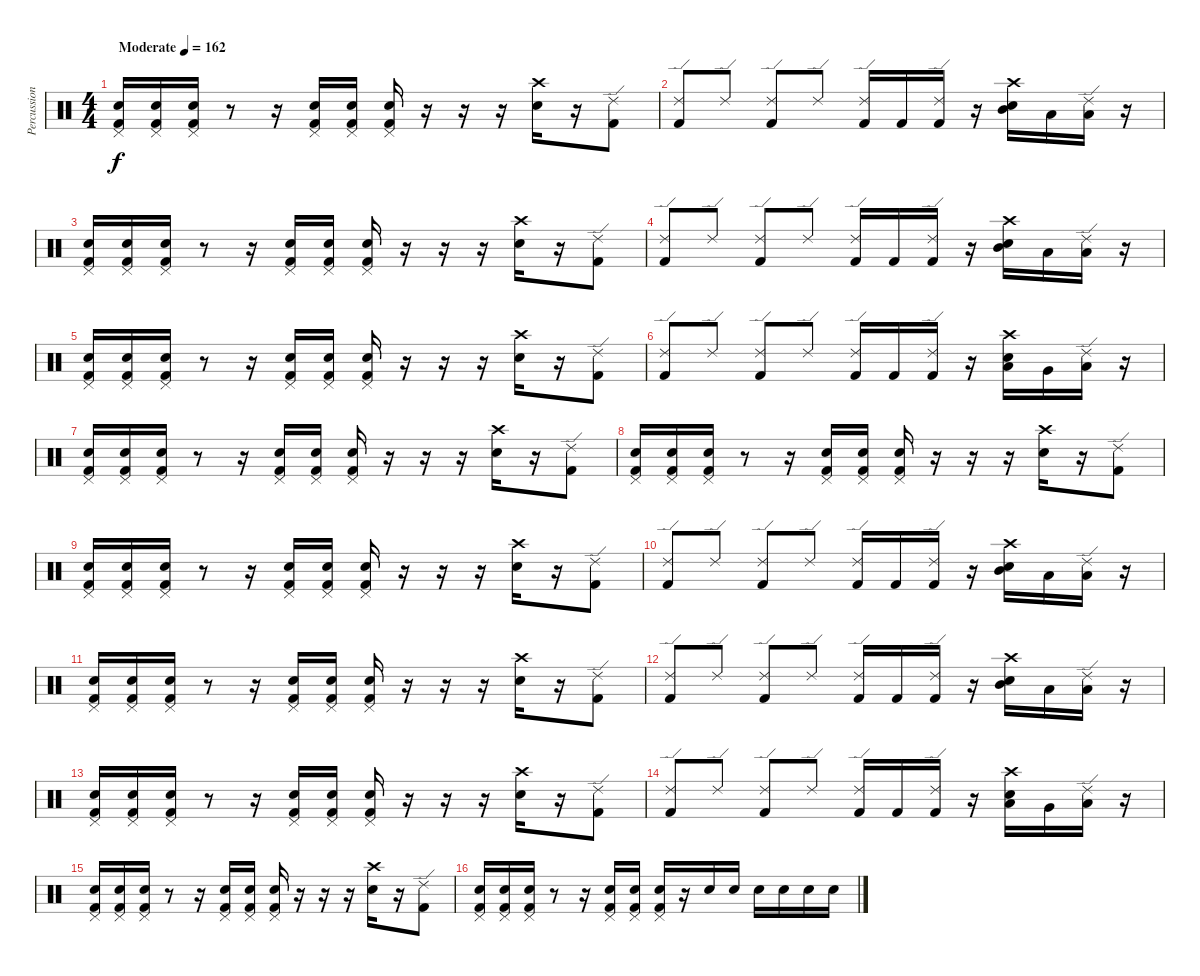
\track ("Percussion" "Percussion") {instrument percussion}
\staff {score}
\articulation defaults
\ts (4 4)
\tempo (162 "Moderate")
\clef neutral
\ks c
("Pedal Hi-Hat (hit)" "Electric Snare (hit)" "Kick (hit) 2").16{dy f} ("Pedal Hi-Hat (hit)" "Electric Snare (hit)" "Kick (hit) 2").16 ("Pedal Hi-Hat (hit)" "Electric Snare (hit)" "Kick (hit) 2").16 r.8 r.16 ("Pedal Hi-Hat (hit)" "Electric Snare (hit)" "Kick (hit) 2").16 ("Pedal Hi-Hat (hit)" "Electric Snare (hit)" "Kick (hit) 2").16 ("Pedal Hi-Hat (hit)" "Electric Snare (hit)" "Kick (hit) 2").16 r.16 r.16 r.16 ("Crash high (hit)" "Electric Snare (hit)").16 r.16 ("Ride (edge) 2" "Kick (hit) 2").8 |
("Ride (edge) 2" "Kick (hit) 2").8 "Ride (edge) 2".8 ("Ride (edge) 2" "Kick (hit) 2").8 "Ride (edge) 2".8 ("Ride (edge) 2" "Kick (hit) 2").16 "Kick (hit) 2".16 ("Ride (edge) 2" "Kick (hit) 2").16 r.16 ("Crash high (hit)" "Mid Tom (hit)" "Electric Snare (hit)").16 "Low Tom (hit)".16 ("Ride (edge) 2" "Low Floor Tom (hit)").16 r.16 |
("Pedal Hi-Hat (hit)" "Electric Snare (hit)" "Kick (hit) 2").16 ("Pedal Hi-Hat (hit)" "Electric Snare (hit)" "Kick (hit) 2").16 ("Pedal Hi-Hat (hit)" "Electric Snare (hit)" "Kick (hit) 2").16 r.8 r.16 ("Pedal Hi-Hat (hit)" "Electric Snare (hit)" "Kick (hit) 2").16 ("Pedal Hi-Hat (hit)" "Electric Snare (hit)" "Kick (hit) 2").16 ("Pedal Hi-Hat (hit)" "Electric Snare (hit)" "Kick (hit) 2").16 r.16 r.16 r.16 ("Crash high (hit)" "Electric Snare (hit)").16 r.16 ("Ride (edge) 2" "Kick (hit) 2").8 |
("Ride (edge) 2" "Kick (hit) 2").8 "Ride (edge) 2".8 ("Ride (edge) 2" "Kick (hit) 2").8 "Ride (edge) 2".8 ("Ride (edge) 2" "Kick (hit) 2").16 "Kick (hit) 2".16 ("Ride (edge) 2" "Kick (hit) 2").16 r.16 ("Crash high (hit)" "Mid Tom (hit)" "Electric Snare (hit)").16 "Low Tom (hit)".16 ("Ride (edge) 2" "Low Floor Tom (hit)").16 r.16 |
("Pedal Hi-Hat (hit)" "Electric Snare (hit)" "Kick (hit) 2").16 ("Pedal Hi-Hat (hit)" "Electric Snare (hit)" "Kick (hit) 2").16 ("Pedal Hi-Hat (hit)" "Electric Snare (hit)" "Kick (hit) 2").16 r.8 r.16 ("Pedal Hi-Hat (hit)" "Electric Snare (hit)" "Kick (hit) 2").16 ("Pedal Hi-Hat (hit)" "Electric Snare (hit)" "Kick (hit) 2").16 ("Pedal Hi-Hat (hit)" "Electric Snare (hit)" "Kick (hit) 2").16 r.16 r.16 r.16 ("Crash high (hit)" "Electric Snare (hit)").16 r.16 ("Ride (edge) 2" "Kick (hit) 2").8 |
("Ride (edge) 2" "Kick (hit) 2").8 "Ride (edge) 2".8 ("Ride (edge) 2" "Kick (hit) 2").8 "Ride (edge) 2".8 ("Ride (edge) 2" "Kick (hit) 2").16 "Kick (hit) 2".16 ("Ride (edge) 2" "Kick (hit) 2").16 r.16 ("Crash high (hit)" "Low Tom (hit)" "Electric Snare (hit)").16 "Very Low Tom (hit)".16 ("Ride (edge) 2" "Low Floor Tom (hit)").16 r.16 |
("Pedal Hi-Hat (hit)" "Electric Snare (hit)" "Kick (hit) 2").16 ("Pedal Hi-Hat (hit)" "Electric Snare (hit)" "Kick (hit) 2").16 ("Pedal Hi-Hat (hit)" "Electric Snare (hit)" "Kick (hit) 2").16 r.8 r.16 ("Pedal Hi-Hat (hit)" "Electric Snare (hit)" "Kick (hit) 2").16 ("Pedal Hi-Hat (hit)" "Electric Snare (hit)" "Kick (hit) 2").16 ("Pedal Hi-Hat (hit)" "Electric Snare (hit)" "Kick (hit) 2").16 r.16 r.16 r.16 ("Crash high (hit)" "Electric Snare (hit)").16 r.16 ("Ride (edge) 2" "Kick (hit) 2").8 |
("Pedal Hi-Hat (hit)" "Electric Snare (hit)" "Kick (hit) 2").16 ("Pedal Hi-Hat (hit)" "Electric Snare (hit)" "Kick (hit) 2").16 ("Pedal Hi-Hat (hit)" "Electric Snare (hit)" "Kick (hit) 2").16 r.8 r.16 ("Pedal Hi-Hat (hit)" "Electric Snare (hit)" "Kick (hit) 2").16 ("Pedal Hi-Hat (hit)" "Electric Snare (hit)" "Kick (hit) 2").16 ("Pedal Hi-Hat (hit)" "Electric Snare (hit)" "Kick (hit) 2").16 r.16 r.16 r.16 ("Crash high (hit)" "Electric Snare (hit)").16 r.16 ("Ride (edge) 2" "Kick (hit) 2").8 |
("Pedal Hi-Hat (hit)" "Electric Snare (hit)" "Kick (hit) 2").16 ("Pedal Hi-Hat (hit)" "Electric Snare (hit)" "Kick (hit) 2").16 ("Pedal Hi-Hat (hit)" "Electric Snare (hit)" "Kick (hit) 2").16 r.8 r.16 ("Pedal Hi-Hat (hit)" "Electric Snare (hit)" "Kick (hit) 2").16 ("Pedal Hi-Hat (hit)" "Electric Snare (hit)" "Kick (hit) 2").16 ("Pedal Hi-Hat (hit)" "Electric Snare (hit)" "Kick (hit) 2").16 r.16 r.16 r.16 ("Crash high (hit)" "Electric Snare (hit)").16 r.16 ("Ride (edge) 2" "Kick (hit) 2").8 |
("Ride (edge) 2" "Kick (hit) 2").8 "Ride (edge) 2".8 ("Ride (edge) 2" "Kick (hit) 2").8 "Ride (edge) 2".8 ("Ride (edge) 2" "Kick (hit) 2").16 "Kick (hit) 2".16 ("Ride (edge) 2" "Kick (hit) 2").16 r.16 ("Crash high (hit)" "Mid Tom (hit)" "Electric Snare (hit)").16 "Low Tom (hit)".16 ("Ride (edge) 2" "Low Floor Tom (hit)").16 r.16 |
("Pedal Hi-Hat (hit)" "Electric Snare (hit)" "Kick (hit) 2").16 ("Pedal Hi-Hat (hit)" "Electric Snare (hit)" "Kick (hit) 2").16 ("Pedal Hi-Hat (hit)" "Electric Snare (hit)" "Kick (hit) 2").16 r.8 r.16 ("Pedal Hi-Hat (hit)" "Electric Snare (hit)" "Kick (hit) 2").16 ("Pedal Hi-Hat (hit)" "Electric Snare (hit)" "Kick (hit) 2").16 ("Pedal Hi-Hat (hit)" "Electric Snare (hit)" "Kick (hit) 2").16 r.16 r.16 r.16 ("Crash high (hit)" "Electric Snare (hit)").16 r.16 ("Ride (edge) 2" "Kick (hit) 2").8 |
("Ride (edge) 2" "Kick (hit) 2").8 "Ride (edge) 2".8 ("Ride (edge) 2" "Kick (hit) 2").8 "Ride (edge) 2".8 ("Ride (edge) 2" "Kick (hit) 2").16 "Kick (hit) 2".16 ("Ride (edge) 2" "Kick (hit) 2").16 r.16 ("Crash high (hit)" "Mid Tom (hit)" "Electric Snare (hit)").16 "Low Tom (hit)".16 ("Ride (edge) 2" "Low Floor Tom (hit)").16 r.16 |
("Pedal Hi-Hat (hit)" "Electric Snare (hit)" "Kick (hit) 2").16 ("Pedal Hi-Hat (hit)" "Electric Snare (hit)" "Kick (hit) 2").16 ("Pedal Hi-Hat (hit)" "Electric Snare (hit)" "Kick (hit) 2").16 r.8 r.16 ("Pedal Hi-Hat (hit)" "Electric Snare (hit)" "Kick (hit) 2").16 ("Pedal Hi-Hat (hit)" "Electric Snare (hit)" "Kick (hit) 2").16 ("Pedal Hi-Hat (hit)" "Electric Snare (hit)" "Kick (hit) 2").16 r.16 r.16 r.16 ("Crash high (hit)" "Electric Snare (hit)").16 r.16 ("Ride (edge) 2" "Kick (hit) 2").8 |
("Ride (edge) 2" "Kick (hit) 2").8 "Ride (edge) 2".8 ("Ride (edge) 2" "Kick (hit) 2").8 "Ride (edge) 2".8 ("Ride (edge) 2" "Kick (hit) 2").16 "Kick (hit) 2".16 ("Ride (edge) 2" "Kick (hit) 2").16 r.16 ("Crash high (hit)" "Low Tom (hit)" "Electric Snare (hit)").16 "Very Low Tom (hit)".16 ("Ride (edge) 2" "Low Floor Tom (hit)").16 r.16 |
("Pedal Hi-Hat (hit)" "Electric Snare (hit)" "Kick (hit) 2").16 ("Pedal Hi-Hat (hit)" "Electric Snare (hit)" "Kick (hit) 2").16 ("Pedal Hi-Hat (hit)" "Electric Snare (hit)" "Kick (hit) 2").16 r.8 r.16 ("Pedal Hi-Hat (hit)" "Electric Snare (hit)" "Kick (hit) 2").16 ("Pedal Hi-Hat (hit)" "Electric Snare (hit)" "Kick (hit) 2").16 ("Pedal Hi-Hat (hit)" "Electric Snare (hit)" "Kick (hit) 2").16 r.16 r.16 r.16 ("Crash high (hit)" "Electric Snare (hit)").16 r.16 ("Ride (edge) 2" "Kick (hit) 2").8 |
("Pedal Hi-Hat (hit)" "Electric Snare (hit)" "Kick (hit) 2").16 ("Pedal Hi-Hat (hit)" "Electric Snare (hit)" "Kick (hit) 2").16 ("Pedal Hi-Hat (hit)" "Electric Snare (hit)" "Kick (hit) 2").16 r.8 r.16 ("Pedal Hi-Hat (hit)" "Electric Snare (hit)" "Kick (hit) 2").16 ("Pedal Hi-Hat (hit)" "Electric Snare (hit)" "Kick (hit) 2").16 ("Pedal Hi-Hat (hit)" "Electric Snare (hit)" "Kick (hit) 2").16 r.16 "Electric Snare (hit)".16 "Electric Snare (hit)".16 "Electric Snare (hit)".16 "Electric Snare (hit)".16 "Electric Snare (hit)".16 "Electric Snare (hit)".16
